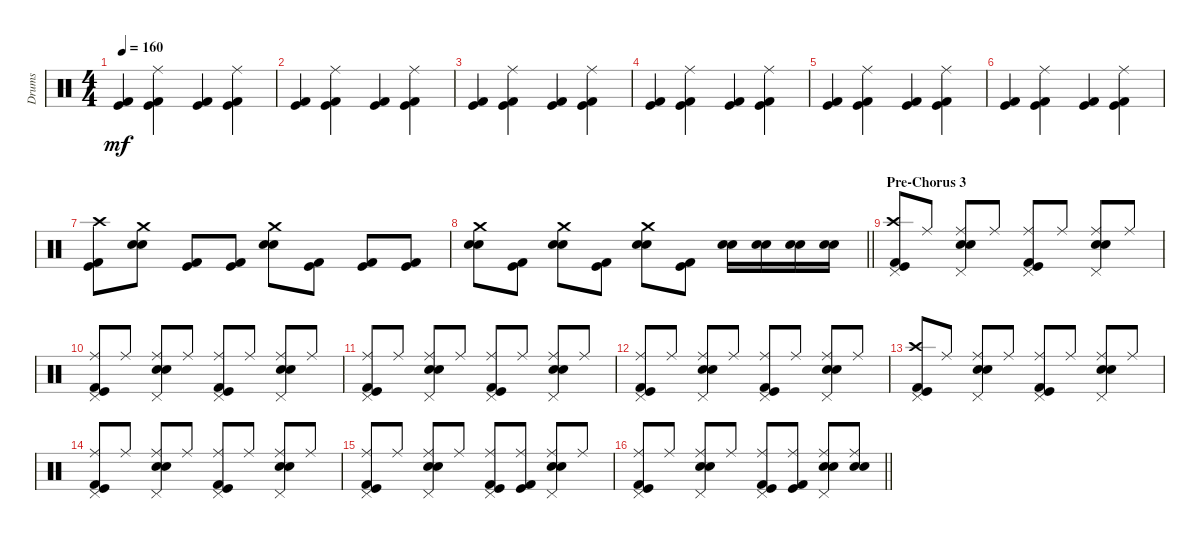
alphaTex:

\track ("Drums" "Drums") {instrument percussion}
\staff {score}
\articulation defaults
\ts (4 4)
\tempo 160
\clef neutral
\ks c
("Kick (hit) 2" "Kick (hit)").4{dy mf} ("Ride (middle)" "Kick (hit) 2" "Kick (hit)").4 ("Kick (hit) 2" "Kick (hit)").4 ("Ride (middle)" "Kick (hit) 2" "Kick (hit)").4 |
("Kick (hit) 2" "Kick (hit)").4 ("Ride (middle)" "Kick (hit) 2" "Kick (hit)").4 ("Kick (hit) 2" "Kick (hit)").4 ("Ride (middle)" "Kick (hit) 2" "Kick (hit)").4 |
("Kick (hit) 2" "Kick (hit)").4 ("Ride (middle)" "Kick (hit) 2" "Kick (hit)").4 ("Kick (hit) 2" "Kick (hit)").4 ("Ride (middle)" "Kick (hit) 2" "Kick (hit)").4 |
("Kick (hit) 2" "Kick (hit)").4 ("Ride (middle)" "Kick (hit) 2" "Kick (hit)").4 ("Kick (hit) 2" "Kick (hit)").4 ("Ride (middle)" "Kick (hit) 2" "Kick (hit)").4 |
("Kick (hit) 2" "Kick (hit)").4 ("Ride (middle)" "Kick (hit) 2" "Kick (hit)").4 ("Kick (hit) 2" "Kick (hit)").4 ("Ride (middle)" "Kick (hit) 2" "Kick (hit)").4 |
("Kick (hit) 2" "Kick (hit)").4 ("Ride (middle)" "Kick (hit) 2" "Kick (hit)").4 ("Kick (hit) 2" "Kick (hit)").4 ("Ride (middle)" "Kick (hit) 2" "Kick (hit)").4 |
("Crash high (hit)" "Kick (hit) 2" "Kick (hit)").8 ("Crash medium (hit)" "Snare (hit) 2" "Electric Snare (hit)").8 ("Kick (hit) 2" "Kick (hit)").8 ("Kick (hit) 2" "Kick (hit)").8 ("Crash medium (hit)" "Snare (hit) 2" "Electric Snare (hit)").8 ("Kick (hit) 2" "Kick (hit)").8 ("Kick (hit) 2" "Kick (hit)").8 ("Kick (hit) 2" "Kick (hit)").8 |
\barLineRight lightlight
("Crash medium (hit)" "Snare (hit) 2" "Electric Snare (hit)").8 ("Kick (hit) 2" "Kick (hit)").8 ("Crash medium (hit)" "Snare (hit) 2" "Electric Snare (hit)").8 ("Kick (hit) 2" "Kick (hit)").8 ("Crash medium (hit)" "Snare (hit) 2" "Electric Snare (hit)").8 ("Kick (hit) 2" "Kick (hit)").8 ("Snare (hit) 2" "Electric Snare (hit)").16 ("Snare (hit) 2" "Electric Snare (hit)").16 ("Snare (hit) 2" "Electric Snare (hit)").16 ("Snare (hit) 2" "Electric Snare (hit)").16 |
\section ("" "Pre-Chorus 3")
("Crash high (hit)" "Pedal Hi-Hat (hit)" "Kick (hit) 2" "Kick (hit)").8 "Ride (middle)".8 ("Ride (middle)" "Pedal Hi-Hat (hit)" "Snare (hit) 2" "Electric Snare (hit)").8 "Ride (middle)".8 ("Ride (middle)" "Pedal Hi-Hat (hit)" "Kick (hit) 2" "Kick (hit)").8 "Ride (middle)".8 ("Ride (middle)" "Pedal Hi-Hat (hit)" "Snare (hit) 2" "Electric Snare (hit)").8 "Ride (middle)".8 |
("Ride (middle)" "Pedal Hi-Hat (hit)" "Kick (hit) 2" "Kick (hit)").8 "Ride (middle)".8 ("Ride (middle)" "Pedal Hi-Hat (hit)" "Snare (hit) 2" "Electric Snare (hit)").8 "Ride (middle)".8 ("Ride (middle)" "Pedal Hi-Hat (hit)" "Kick (hit) 2" "Kick (hit)").8 "Ride (middle)".8 ("Ride (middle)" "Pedal Hi-Hat (hit)" "Snare (hit) 2" "Electric Snare (hit)").8 "Ride (middle)".8 |
("Ride (middle)" "Pedal Hi-Hat (hit)" "Kick (hit) 2" "Kick (hit)").8 "Ride (middle)".8 ("Ride (middle)" "Pedal Hi-Hat (hit)" "Snare (hit) 2" "Electric Snare (hit)").8 "Ride (middle)".8 ("Ride (middle)" "Pedal Hi-Hat (hit)" "Kick (hit) 2" "Kick (hit)").8 "Ride (middle)".8 ("Ride (middle)" "Pedal Hi-Hat (hit)" "Snare (hit) 2" "Electric Snare (hit)").8 "Ride (middle)".8 |
("Ride (middle)" "Pedal Hi-Hat (hit)" "Kick (hit) 2" "Kick (hit)").8 "Ride (middle)".8 ("Ride (middle)" "Pedal Hi-Hat (hit)" "Snare (hit) 2" "Electric Snare (hit)").8 "Ride (middle)".8 ("Ride (middle)" "Pedal Hi-Hat (hit)" "Kick (hit) 2" "Kick (hit)").8 "Ride (middle)".8 ("Ride (middle)" "Pedal Hi-Hat (hit)" "Snare (hit) 2" "Electric Snare (hit)").8 "Ride (middle)".8 |
("Crash high (hit)" "Pedal Hi-Hat (hit)" "Kick (hit) 2" "Kick (hit)").8 "Ride (middle)".8 ("Ride (middle)" "Pedal Hi-Hat (hit)" "Snare (hit) 2" "Electric Snare (hit)").8 "Ride (middle)".8 ("Ride (middle)" "Pedal Hi-Hat (hit)" "Kick (hit) 2" "Kick (hit)").8 "Ride (middle)".8 ("Ride (middle)" "Pedal Hi-Hat (hit)" "Snare (hit) 2" "Electric Snare (hit)").8 "Ride (middle)".8 |
("Ride (middle)" "Pedal Hi-Hat (hit)" "Kick (hit) 2" "Kick (hit)").8 "Ride (middle)".8 ("Ride (middle)" "Pedal Hi-Hat (hit)" "Snare (hit) 2" "Electric Snare (hit)").8 "Ride (middle)".8 ("Ride (middle)" "Pedal Hi-Hat (hit)" "Kick (hit) 2" "Kick (hit)").8 "Ride (middle)".8 ("Ride (middle)" "Pedal Hi-Hat (hit)" "Snare (hit) 2" "Electric Snare (hit)").8 "Ride (middle)".8 |
("Ride (middle)" "Pedal Hi-Hat (hit)" "Kick (hit) 2" "Kick (hit)").8 "Ride (middle)".8 ("Ride (middle)" "Pedal Hi-Hat (hit)" "Snare (hit) 2" "Electric Snare (hit)").8 "Ride (middle)".8 ("Ride (middle)" "Pedal Hi-Hat (hit)" "Kick (hit) 2" "Kick (hit)").8 ("Ride (middle)" "Kick (hit) 2" "Kick (hit)").8 ("Ride (middle)" "Pedal Hi-Hat (hit)" "Snare (hit) 2" "Electric Snare (hit)").8 "Ride (middle)".8 |
\barLineRight lightlight
("Ride (middle)" "Pedal Hi-Hat (hit)" "Kick (hit) 2" "Kick (hit)").8 "Ride (middle)".8 ("Ride (middle)" "Pedal Hi-Hat (hit)" "Snare (hit) 2" "Electric Snare (hit)").8 "Ride (middle)".8 ("Ride (middle)" "Pedal Hi-Hat (hit)" "Kick (hit) 2" "Kick (hit)").8 ("Ride (middle)" "Kick (hit) 2" "Kick (hit)").8 ("Ride (middle)" "Pedal Hi-Hat (hit)" "Snare (hit) 2" "Electric Snare (hit)").8 ("Ride (middle)" "Snare (hit) 2" "Electric Snare (hit)").8
